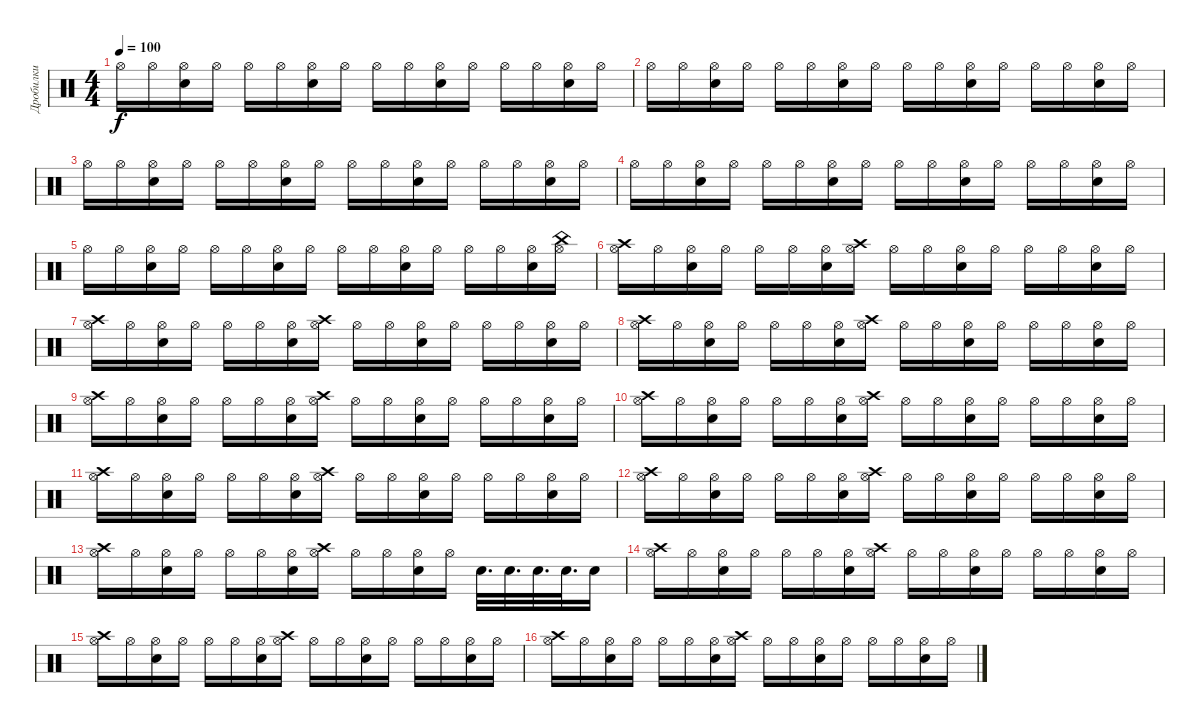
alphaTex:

\track ("Дробилки" "Дробилки") {instrument percussion}
\staff {score}
\articulation defaults
\ts (4 4)
\tempo 100
\clef neutral
\ks c "Hi-Hat (open)".16{dy f} "Hi-Hat (open)".16
("Hi-Hat (open)" "Snare (hit) 2").16 "Hi-Hat (open)".16 "Hi-Hat (open)".16 "Hi-Hat (open)".16 ("Hi-Hat (open)" "Snare (hit) 2").16 "Hi-Hat (open)".16 "Hi-Hat (open)".16 "Hi-Hat (open)".16 ("Hi-Hat (open)" "Snare (hit) 2").16 "Hi-Hat (open)".16 "Hi-Hat (open)".16 "Hi-Hat (open)".16 ("Hi-Hat (open)" "Snare (hit) 2").16 "Hi-Hat (open)".16 |
"Hi-Hat (open)".16 "Hi-Hat (open)".16 ("Hi-Hat (open)" "Snare (hit) 2").16 "Hi-Hat (open)".16 "Hi-Hat (open)".16 "Hi-Hat (open)".16 ("Hi-Hat (open)" "Snare (hit) 2").16 "Hi-Hat (open)".16 "Hi-Hat (open)".16 "Hi-Hat (open)".16 ("Hi-Hat (open)" "Snare (hit) 2").16 "Hi-Hat (open)".16 "Hi-Hat (open)".16 "Hi-Hat (open)".16 ("Hi-Hat (open)" "Snare (hit) 2").16 "Hi-Hat (open)".16 |
"Hi-Hat (open)".16 "Hi-Hat (open)".16 ("Hi-Hat (open)" "Snare (hit) 2").16 "Hi-Hat (open)".16 "Hi-Hat (open)".16 "Hi-Hat (open)".16 ("Hi-Hat (open)" "Snare (hit) 2").16 "Hi-Hat (open)".16 "Hi-Hat (open)".16 "Hi-Hat (open)".16 ("Hi-Hat (open)" "Snare (hit) 2").16 "Hi-Hat (open)".16 "Hi-Hat (open)".16 "Hi-Hat (open)".16 ("Hi-Hat (open)" "Snare (hit) 2").16 "Hi-Hat (open)".16 |
"Hi-Hat (open)".16 "Hi-Hat (open)".16 ("Hi-Hat (open)" "Snare (hit) 2").16 "Hi-Hat (open)".16 "Hi-Hat (open)".16 "Hi-Hat (open)".16 ("Hi-Hat (open)" "Snare (hit) 2").16 "Hi-Hat (open)".16 "Hi-Hat (open)".16 "Hi-Hat (open)".16 ("Hi-Hat (open)" "Snare (hit) 2").16 "Hi-Hat (open)".16 "Hi-Hat (open)".16 "Hi-Hat (open)".16 ("Hi-Hat (open)" "Snare (hit) 2").16 "Hi-Hat (open)".16 |
"Hi-Hat (open)".16 "Hi-Hat (open)".16 ("Hi-Hat (open)" "Snare (hit) 2").16 "Hi-Hat (open)".16 "Hi-Hat (open)".16 "Hi-Hat (open)".16 ("Hi-Hat (open)" "Snare (hit) 2").16 "Hi-Hat (open)".16 "Hi-Hat (open)".16 "Hi-Hat (open)".16 ("Hi-Hat (open)" "Snare (hit) 2").16 "Hi-Hat (open)".16 "Hi-Hat (open)".16 "Hi-Hat (open)".16 ("Hi-Hat (open)" "Snare (hit) 2").16 ("Hi-Hat (open)" "China (hit)").16 |
("Hi-Hat (open)" "Crash high (hit)").16 "Hi-Hat (open)".16 ("Hi-Hat (open)" "Snare (hit) 2").16 "Hi-Hat (open)".16 "Hi-Hat (open)".16 "Hi-Hat (open)".16 ("Hi-Hat (open)" "Snare (hit) 2").16 ("Hi-Hat (open)" "Crash high (hit)").16 "Hi-Hat (open)".16 "Hi-Hat (open)".16 ("Hi-Hat (open)" "Snare (hit) 2").16 "Hi-Hat (open)".16 "Hi-Hat (open)".16 "Hi-Hat (open)".16 ("Hi-Hat (open)" "Snare (hit) 2").16 "Hi-Hat (open)".16 |
("Hi-Hat (open)" "Crash high (hit)").16 "Hi-Hat (open)".16 ("Hi-Hat (open)" "Snare (hit) 2").16 "Hi-Hat (open)".16 "Hi-Hat (open)".16 "Hi-Hat (open)".16 ("Hi-Hat (open)" "Snare (hit) 2").16 ("Hi-Hat (open)" "Crash high (hit)").16 "Hi-Hat (open)".16 "Hi-Hat (open)".16 ("Hi-Hat (open)" "Snare (hit) 2").16 "Hi-Hat (open)".16 "Hi-Hat (open)".16 "Hi-Hat (open)".16 ("Hi-Hat (open)" "Snare (hit) 2").16 "Hi-Hat (open)".16 |
("Hi-Hat (open)" "Crash high (hit)").16 "Hi-Hat (open)".16 ("Hi-Hat (open)" "Snare (hit) 2").16 "Hi-Hat (open)".16 "Hi-Hat (open)".16 "Hi-Hat (open)".16 ("Hi-Hat (open)" "Snare (hit) 2").16 ("Hi-Hat (open)" "Crash high (hit)").16 "Hi-Hat (open)".16 "Hi-Hat (open)".16 ("Hi-Hat (open)" "Snare (hit) 2").16 "Hi-Hat (open)".16 "Hi-Hat (open)".16 "Hi-Hat (open)".16 ("Hi-Hat (open)" "Snare (hit) 2").16 "Hi-Hat (open)".16 |
("Hi-Hat (open)" "Crash high (hit)").16 "Hi-Hat (open)".16 ("Hi-Hat (open)" "Snare (hit) 2").16 "Hi-Hat (open)".16 "Hi-Hat (open)".16 "Hi-Hat (open)".16 ("Hi-Hat (open)" "Snare (hit) 2").16 ("Hi-Hat (open)" "Crash high (hit)").16 "Hi-Hat (open)".16 "Hi-Hat (open)".16 ("Hi-Hat (open)" "Snare (hit) 2").16 "Hi-Hat (open)".16 "Hi-Hat (open)".16 "Hi-Hat (open)".16 ("Hi-Hat (open)" "Snare (hit) 2").16 "Hi-Hat (open)".16 |
("Hi-Hat (open)" "Crash high (hit)").16 "Hi-Hat (open)".16 ("Hi-Hat (open)" "Snare (hit) 2").16 "Hi-Hat (open)".16 "Hi-Hat (open)".16 "Hi-Hat (open)".16 ("Hi-Hat (open)" "Snare (hit) 2").16 ("Hi-Hat (open)" "Crash high (hit)").16 "Hi-Hat (open)".16 "Hi-Hat (open)".16 ("Hi-Hat (open)" "Snare (hit) 2").16 "Hi-Hat (open)".16 "Hi-Hat (open)".16 "Hi-Hat (open)".16 ("Hi-Hat (open)" "Snare (hit) 2").16 "Hi-Hat (open)".16 |
("Hi-Hat (open)" "Crash high (hit)").16 "Hi-Hat (open)".16 ("Hi-Hat (open)" "Snare (hit) 2").16 "Hi-Hat (open)".16 "Hi-Hat (open)".16 "Hi-Hat (open)".16 ("Hi-Hat (open)" "Snare (hit) 2").16 ("Hi-Hat (open)" "Crash high (hit)").16 "Hi-Hat (open)".16 "Hi-Hat (open)".16 ("Hi-Hat (open)" "Snare (hit) 2").16 "Hi-Hat (open)".16 "Hi-Hat (open)".16 "Hi-Hat (open)".16 ("Hi-Hat (open)" "Snare (hit) 2").16 "Hi-Hat (open)".16 |
("Hi-Hat (open)" "Crash high (hit)").16 "Hi-Hat (open)".16 ("Hi-Hat (open)" "Snare (hit) 2").16 "Hi-Hat (open)".16 "Hi-Hat (open)".16 "Hi-Hat (open)".16 ("Hi-Hat (open)" "Snare (hit) 2").16 ("Hi-Hat (open)" "Crash high (hit)").16 "Hi-Hat (open)".16 "Hi-Hat (open)".16 ("Hi-Hat (open)" "Snare (hit) 2").16 "Hi-Hat (open)".16 "Hi-Hat (open)".16 "Hi-Hat (open)".16 ("Hi-Hat (open)" "Snare (hit) 2").16 "Hi-Hat (open)".16 |
("Hi-Hat (open)" "Crash high (hit)").16 "Hi-Hat (open)".16 ("Hi-Hat (open)" "Snare (hit) 2").16 "Hi-Hat (open)".16 "Hi-Hat (open)".16 "Hi-Hat (open)".16 ("Hi-Hat (open)" "Snare (hit) 2").16 ("Hi-Hat (open)" "Crash high (hit)").16 "Hi-Hat (open)".16 "Hi-Hat (open)".16 ("Hi-Hat (open)" "Snare (hit) 2").16 "Hi-Hat (open)".16 "Snare (hit) 2".32{d} "Snare (hit) 2".32{d} "Snare (hit) 2".32{d} "Snare (hit) 2".32{d} "Snare (hit) 2".16 |
("Hi-Hat (open)" "Crash high (hit)").16 "Hi-Hat (open)".16 ("Hi-Hat (open)" "Snare (hit) 2").16 "Hi-Hat (open)".16 "Hi-Hat (open)".16 "Hi-Hat (open)".16 ("Hi-Hat (open)" "Snare (hit) 2").16 ("Hi-Hat (open)" "Crash high (hit)").16 "Hi-Hat (open)".16 "Hi-Hat (open)".16 ("Hi-Hat (open)" "Snare (hit) 2").16 "Hi-Hat (open)".16 "Hi-Hat (open)".16 "Hi-Hat (open)".16 ("Hi-Hat (open)" "Snare (hit) 2").16 "Hi-Hat (open)".16 |
("Hi-Hat (open)" "Crash high (hit)").16 "Hi-Hat (open)".16 ("Hi-Hat (open)" "Snare (hit) 2").16 "Hi-Hat (open)".16 "Hi-Hat (open)".16 "Hi-Hat (open)".16 ("Hi-Hat (open)" "Snare (hit) 2").16 ("Hi-Hat (open)" "Crash high (hit)").16 "Hi-Hat (open)".16 "Hi-Hat (open)".16 ("Hi-Hat (open)" "Snare (hit) 2").16 "Hi-Hat (open)".16 "Hi-Hat (open)".16 "Hi-Hat (open)".16 ("Hi-Hat (open)" "Snare (hit) 2").16 "Hi-Hat (open)".16 |
("Hi-Hat (open)" "Crash high (hit)").16 "Hi-Hat (open)".16 ("Hi-Hat (open)" "Snare (hit) 2").16 "Hi-Hat (open)".16 "Hi-Hat (open)".16 "Hi-Hat (open)".16 ("Hi-Hat (open)" "Snare (hit) 2").16 ("Hi-Hat (open)" "Crash high (hit)").16 "Hi-Hat (open)".16 "Hi-Hat (open)".16 ("Hi-Hat (open)" "Snare (hit) 2").16 "Hi-Hat (open)".16 "Hi-Hat (open)".16 "Hi-Hat (open)".16 ("Hi-Hat (open)" "Snare (hit) 2").16 "Hi-Hat (open)".16
